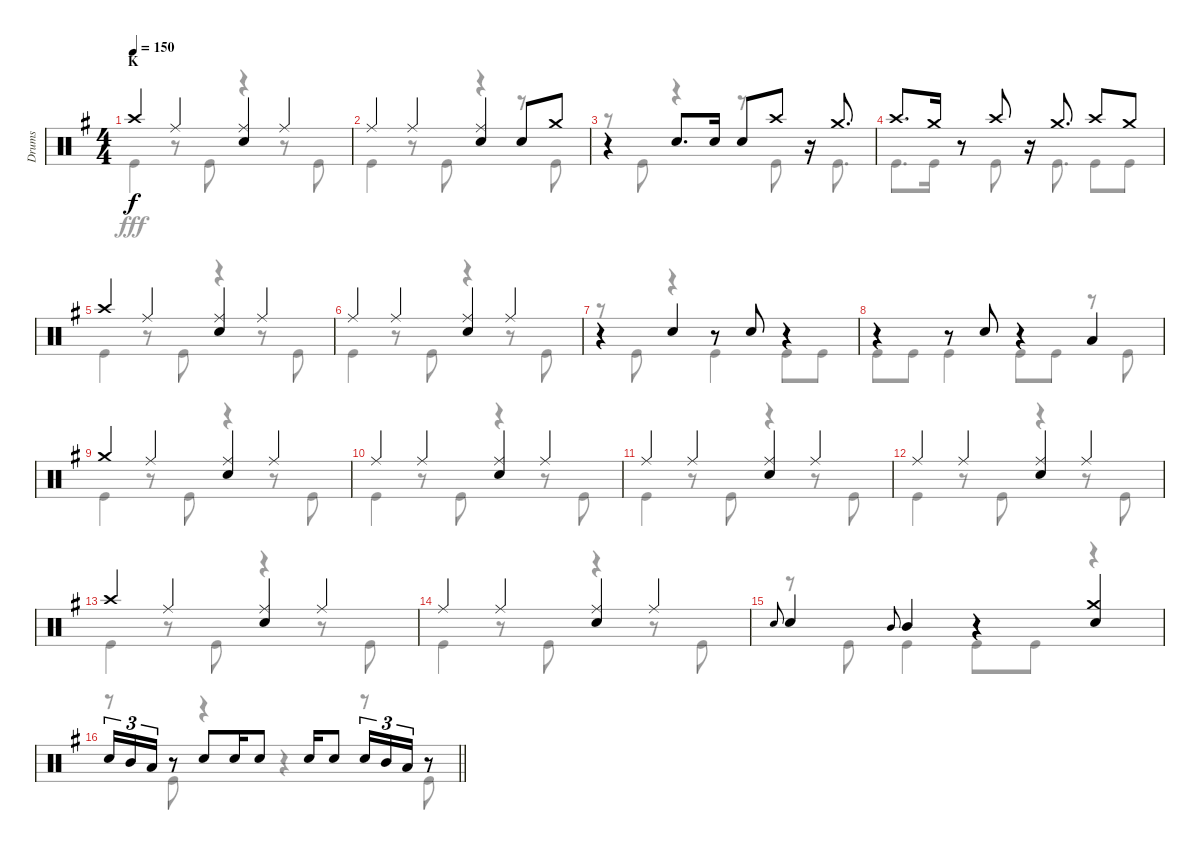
\track ("Drums" "Drums") {instrument percussion}
\staff {score}
\articulation defaults
\voice
\ts (4 4)
\section ("" "K")
\tempo 150
\clef neutral
\ks g "Crash high (hit)".4{dy f} "Ride (middle)".4
("Ride (middle)" "Snare (hit) 2").4 "Ride (middle)".4 |
"Ride (middle)".4 "Ride (middle)".4 ("Ride (middle)" "Snare (hit) 2").4 "Snare (hit) 2".8 "Crash medium (hit)".8 |
r.4 "Snare (hit) 2".8{d} "Snare (hit) 2".16 "Snare (hit) 2".8 "Crash high (hit)".8 r.16 "Crash medium (hit)".8{d} |
"Crash high (hit)".8{d} "Crash medium (hit)".16 r.8 "Crash high (hit)".8 r.16 "Crash medium (hit)".8{d} "Crash high (hit)".8 "Crash medium (hit)".8 |
"Crash high (hit)".4 "Ride (middle)".4 ("Ride (middle)" "Snare (hit) 2").4 "Ride (middle)".4 |
"Ride (middle)".4 "Ride (middle)".4 ("Ride (middle)" "Snare (hit) 2").4 "Ride (middle)".4 |
r.4 "Snare (hit) 2".4 r.8 "Snare (hit) 2".8 r.4 |
r.4 r.8 "Snare (hit) 2".8 r.4 "Low Tom (hit)".4 |
"Crash medium (hit)".4 "Ride (middle)".4 ("Ride (middle)" "Snare (hit) 2").4 "Ride (middle)".4 |
"Ride (middle)".4 "Ride (middle)".4 ("Ride (middle)" "Snare (hit) 2").4 "Ride (middle)".4 |
"Ride (middle)".4 "Ride (middle)".4 ("Ride (middle)" "Snare (hit) 2").4 "Ride (middle)".4 |
"Ride (middle)".4 "Ride (middle)".4 ("Ride (middle)" "Snare (hit) 2").4 "Ride (middle)".4 |
"Crash high (hit)".4 "Ride (middle)".4 ("Ride (middle)" "Snare (hit) 2").4 "Ride (middle)".4 |
"Ride (middle)".4 "Ride (middle)".4 ("Ride (middle)" "Snare (hit) 2").4 "Ride (middle)".4 |
"Snare (hit) 2".8{gr onbeat} "Snare (hit) 2".4 "Mid Tom (hit)".8{gr onbeat} "Mid Tom (hit)".4 r.4 ("Crash medium (hit)" "Snare (hit) 2").4 |
\barLineRight lightlight "Snare (hit) 2".16{tu (3 2)} "Mid Tom (hit)".16{tu (3 2)} "Low Tom (hit)".16{tu (3 2)}
r.8 "Snare (hit) 2".8 "Snare (hit) 2".16 "Snare (hit) 2".8 "Snare (hit) 2".16 "Snare (hit) 2".8 "Snare (hit) 2".16{tu (3 2)} "Mid Tom (hit)".16{tu (3 2)} "Low Tom (hit)".16{tu (3 2)} r.8
\voice
\clef neutral
\ottava regular
\simile none
\ks g "Kick (hit)".4{dy fff}
r.8 "Kick (hit)".8 r.4 r.8 "Kick (hit)".8 |
"Kick (hit)".4 r.8 "Kick (hit)".8 r.4 r.8 "Kick (hit)".8 |
r.8 "Kick (hit)".8 r.4 r.8 "Kick (hit)".8 r.16 "Kick (hit)".8{d} |
"Kick (hit)".8{d} "Kick (hit)".16 r.8 "Kick (hit)".8 r.16 "Kick (hit)".8{d} "Kick (hit)".8 "Kick (hit)".8 |
"Kick (hit)".4 r.8 "Kick (hit)".8 r.4 r.8 "Kick (hit)".8 |
"Kick (hit)".4 r.8 "Kick (hit)".8 r.4 r.8 "Kick (hit)".8 |
r.8 "Kick (hit)".8 r.4 "Kick (hit)".4 "Kick (hit)".8 "Kick (hit)".8 |
"Kick (hit)".8 "Kick (hit)".8 "Kick (hit)".4 "Kick (hit)".8 "Kick (hit)".8 r.8 "Kick (hit)".8 |
"Kick (hit)".4 r.8 "Kick (hit)".8 r.4 r.8 "Kick (hit)".8 |
"Kick (hit)".4 r.8 "Kick (hit)".8 r.4 r.8 "Kick (hit)".8 |
"Kick (hit)".4 r.8 "Kick (hit)".8 r.4 r.8 "Kick (hit)".8 |
"Kick (hit)".4 r.8 "Kick (hit)".8 r.4 r.8 "Kick (hit)".8 |
"Kick (hit)".4 r.8 "Kick (hit)".8 r.4 r.8 "Kick (hit)".8 |
"Kick (hit)".4 r.8 "Kick (hit)".8 r.4 r.8 "Kick (hit)".8 |
r.8 "Kick (hit)".8 "Kick (hit)".4 "Kick (hit)".8 "Kick (hit)".8 r.4 |
\barLineRight lightlight
r.8 "Kick (hit)".8 r.4 r.4 r.8 "Kick (hit)".8
